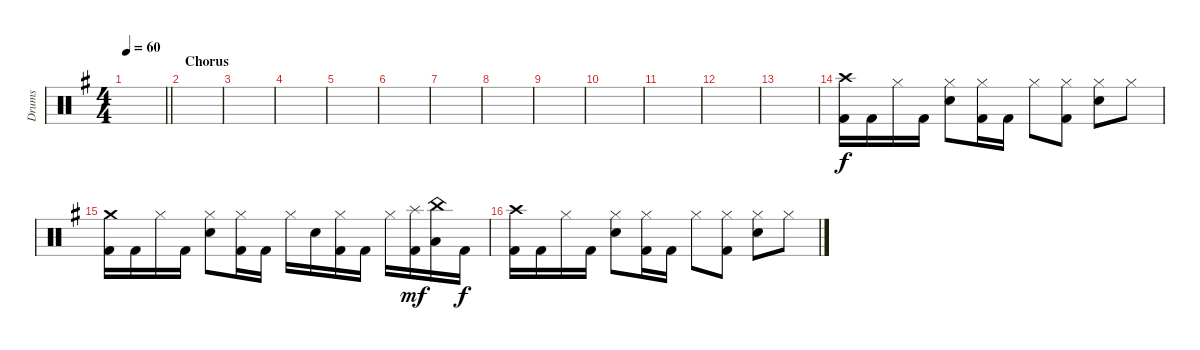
\track ("Drums" "Drums") {instrument percussion}
\staff {score}
\articulation defaults
\ts (4 4)
\tempo 60
\clef neutral
\barLineRight lightlight
\ks eminor
|
\section ("" "Chorus")
|
|
|
|
|
|
|
|
|
|
|
|
("Crash high (hit)" "Kick (hit) 2").16 "Kick (hit) 2".16 "Hi-Hat (closed)".16 "Kick (hit) 2".16 ("Hi-Hat (closed)" "Snare (hit) 2").8 ("Hi-Hat (closed)" "Kick (hit) 2").16 "Kick (hit) 2".16 "Hi-Hat (closed)".8 ("Hi-Hat (closed)" "Kick (hit) 2").8 ("Hi-Hat (closed)" "Snare (hit) 2").8 "Hi-Hat (closed)".8 |
("Crash medium (hit)" "Kick (hit) 2").16 "Kick (hit) 2".16 "Hi-Hat (closed)".16 "Kick (hit) 2".16 ("Hi-Hat (closed)" "Snare (hit) 2").8 ("Hi-Hat (closed)" "Kick (hit) 2").16 "Kick (hit) 2".16 "Hi-Hat (closed)".16 "Snare (hit) 2".16 ("Hi-Hat (closed)" "Kick (hit) 2").16 "Kick (hit) 2".16 "Hi-Hat (closed)".16 ("Splash (hit)" "Kick (hit) 2").16{dy mf} ("China (hit)" "Low Tom (hit)").16 "Kick (hit) 2".16{dy f} |
("Crash high (hit)" "Kick (hit) 2").16 "Kick (hit) 2".16 "Hi-Hat (closed)".16 "Kick (hit) 2".16 ("Hi-Hat (closed)" "Snare (hit) 2").8 ("Hi-Hat (closed)" "Kick (hit) 2").16 "Kick (hit) 2".16 "Hi-Hat (closed)".8 ("Hi-Hat (closed)" "Kick (hit) 2").8 ("Hi-Hat (closed)" "Snare (hit) 2").8 "Hi-Hat (closed)".8
